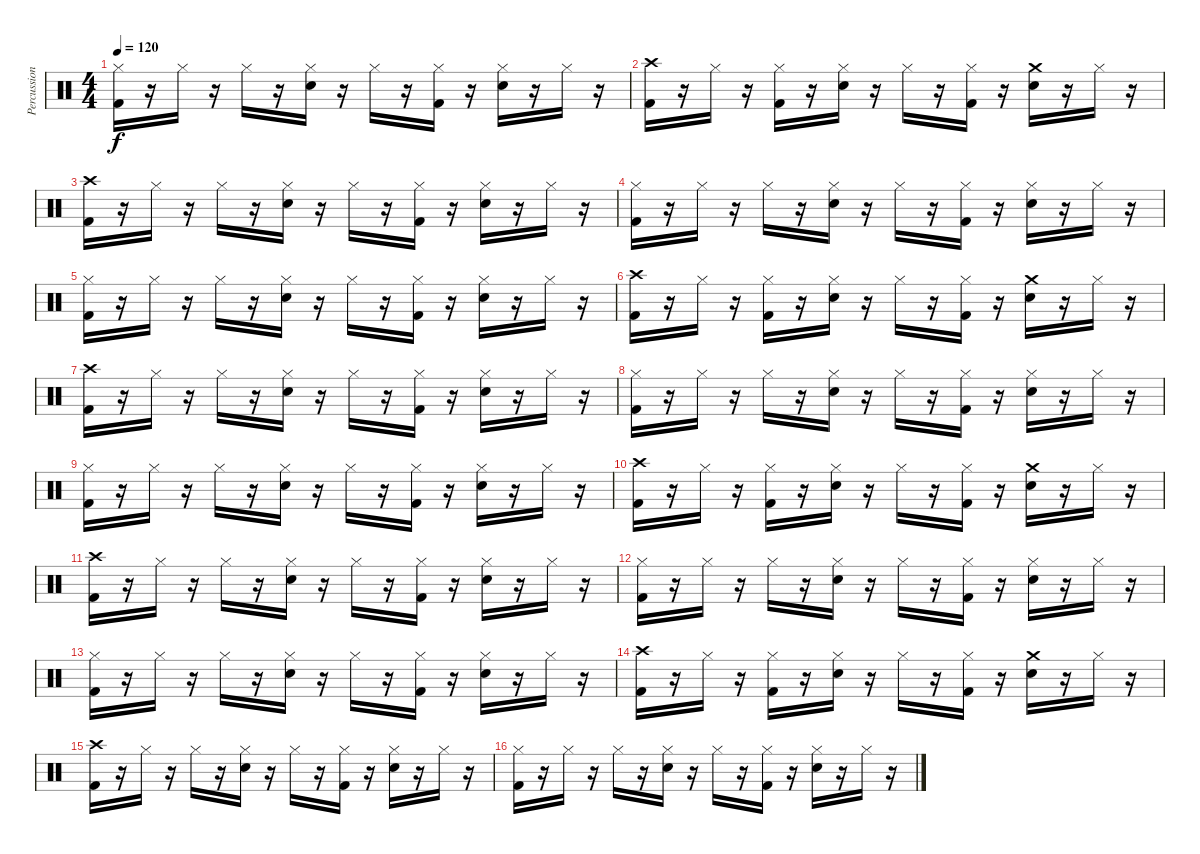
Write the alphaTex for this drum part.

\track ("Percussion" "Percussion") {instrument percussion}
\staff {score}
\articulation defaults
\ts (4 4)
\tempo 120
\clef neutral
\ks c
("Hi-Hat (closed)" "Kick (hit) 2").16{dy f} r.16 "Hi-Hat (closed)".16 r.16 "Hi-Hat (closed)".16 r.16 ("Hi-Hat (closed)" "Snare (hit) 2").16 r.16 "Hi-Hat (closed)".16 r.16 ("Hi-Hat (closed)" "Kick (hit) 2").16 r.16 ("Hi-Hat (closed)" "Snare (hit) 2").16 r.16 "Hi-Hat (closed)".16 r.16 |
("Crash high (hit)" "Kick (hit) 2").16 r.16 "Hi-Hat (closed)".16 r.16 ("Hi-Hat (closed)" "Kick (hit) 2").16 r.16 ("Hi-Hat (closed)" "Snare (hit) 2").16 r.16 "Hi-Hat (closed)".16 r.16 ("Hi-Hat (closed)" "Kick (hit) 2").16 r.16 ("Crash medium (hit)" "Snare (hit) 2").16 r.16 "Hi-Hat (closed)".16 r.16 |
("Crash high (hit)" "Kick (hit) 2").16 r.16 "Hi-Hat (closed)".16 r.16 "Hi-Hat (closed)".16 r.16 ("Hi-Hat (closed)" "Snare (hit) 2").16 r.16 "Hi-Hat (closed)".16 r.16 ("Hi-Hat (closed)" "Kick (hit) 2").16 r.16 ("Hi-Hat (closed)" "Snare (hit) 2").16 r.16 "Hi-Hat (closed)".16 r.16 |
("Hi-Hat (closed)" "Kick (hit) 2").16 r.16 "Hi-Hat (closed)".16 r.16 "Hi-Hat (closed)".16 r.16 ("Hi-Hat (closed)" "Snare (hit) 2").16 r.16 "Hi-Hat (closed)".16 r.16 ("Hi-Hat (closed)" "Kick (hit) 2").16 r.16 ("Hi-Hat (closed)" "Snare (hit) 2").16 r.16 "Hi-Hat (closed)".16 r.16 |
("Hi-Hat (closed)" "Kick (hit) 2").16 r.16 "Hi-Hat (closed)".16 r.16 "Hi-Hat (closed)".16 r.16 ("Hi-Hat (closed)" "Snare (hit) 2").16 r.16 "Hi-Hat (closed)".16 r.16 ("Hi-Hat (closed)" "Kick (hit) 2").16 r.16 ("Hi-Hat (closed)" "Snare (hit) 2").16 r.16 "Hi-Hat (closed)".16 r.16 |
("Crash high (hit)" "Kick (hit) 2").16 r.16 "Hi-Hat (closed)".16 r.16 ("Hi-Hat (closed)" "Kick (hit) 2").16 r.16 ("Hi-Hat (closed)" "Snare (hit) 2").16 r.16 "Hi-Hat (closed)".16 r.16 ("Hi-Hat (closed)" "Kick (hit) 2").16 r.16 ("Crash medium (hit)" "Snare (hit) 2").16 r.16 "Hi-Hat (closed)".16 r.16 |
("Crash high (hit)" "Kick (hit) 2").16 r.16 "Hi-Hat (closed)".16 r.16 "Hi-Hat (closed)".16 r.16 ("Hi-Hat (closed)" "Snare (hit) 2").16 r.16 "Hi-Hat (closed)".16 r.16 ("Hi-Hat (closed)" "Kick (hit) 2").16 r.16 ("Hi-Hat (closed)" "Snare (hit) 2").16 r.16 "Hi-Hat (closed)".16 r.16 |
("Hi-Hat (closed)" "Kick (hit) 2").16 r.16 "Hi-Hat (closed)".16 r.16 "Hi-Hat (closed)".16 r.16 ("Hi-Hat (closed)" "Snare (hit) 2").16 r.16 "Hi-Hat (closed)".16 r.16 ("Hi-Hat (closed)" "Kick (hit) 2").16 r.16 ("Hi-Hat (closed)" "Snare (hit) 2").16 r.16 "Hi-Hat (closed)".16 r.16 |
("Hi-Hat (closed)" "Kick (hit) 2").16 r.16 "Hi-Hat (closed)".16 r.16 "Hi-Hat (closed)".16 r.16 ("Hi-Hat (closed)" "Snare (hit) 2").16 r.16 "Hi-Hat (closed)".16 r.16 ("Hi-Hat (closed)" "Kick (hit) 2").16 r.16 ("Hi-Hat (closed)" "Snare (hit) 2").16 r.16 "Hi-Hat (closed)".16 r.16 |
("Crash high (hit)" "Kick (hit) 2").16 r.16 "Hi-Hat (closed)".16 r.16 ("Hi-Hat (closed)" "Kick (hit) 2").16 r.16 ("Hi-Hat (closed)" "Snare (hit) 2").16 r.16 "Hi-Hat (closed)".16 r.16 ("Hi-Hat (closed)" "Kick (hit) 2").16 r.16 ("Crash medium (hit)" "Snare (hit) 2").16 r.16 "Hi-Hat (closed)".16 r.16 |
("Crash high (hit)" "Kick (hit) 2").16 r.16 "Hi-Hat (closed)".16 r.16 "Hi-Hat (closed)".16 r.16 ("Hi-Hat (closed)" "Snare (hit) 2").16 r.16 "Hi-Hat (closed)".16 r.16 ("Hi-Hat (closed)" "Kick (hit) 2").16 r.16 ("Hi-Hat (closed)" "Snare (hit) 2").16 r.16 "Hi-Hat (closed)".16 r.16 |
("Hi-Hat (closed)" "Kick (hit) 2").16 r.16 "Hi-Hat (closed)".16 r.16 "Hi-Hat (closed)".16 r.16 ("Hi-Hat (closed)" "Snare (hit) 2").16 r.16 "Hi-Hat (closed)".16 r.16 ("Hi-Hat (closed)" "Kick (hit) 2").16 r.16 ("Hi-Hat (closed)" "Snare (hit) 2").16 r.16 "Hi-Hat (closed)".16 r.16 |
("Hi-Hat (closed)" "Kick (hit) 2").16 r.16 "Hi-Hat (closed)".16 r.16 "Hi-Hat (closed)".16 r.16 ("Hi-Hat (closed)" "Snare (hit) 2").16 r.16 "Hi-Hat (closed)".16 r.16 ("Hi-Hat (closed)" "Kick (hit) 2").16 r.16 ("Hi-Hat (closed)" "Snare (hit) 2").16 r.16 "Hi-Hat (closed)".16 r.16 |
("Crash high (hit)" "Kick (hit) 2").16 r.16 "Hi-Hat (closed)".16 r.16 ("Hi-Hat (closed)" "Kick (hit) 2").16 r.16 ("Hi-Hat (closed)" "Snare (hit) 2").16 r.16 "Hi-Hat (closed)".16 r.16 ("Hi-Hat (closed)" "Kick (hit) 2").16 r.16 ("Crash medium (hit)" "Snare (hit) 2").16 r.16 "Hi-Hat (closed)".16 r.16 |
("Crash high (hit)" "Kick (hit) 2").16 r.16 "Hi-Hat (closed)".16 r.16 "Hi-Hat (closed)".16 r.16 ("Hi-Hat (closed)" "Snare (hit) 2").16 r.16 "Hi-Hat (closed)".16 r.16 ("Hi-Hat (closed)" "Kick (hit) 2").16 r.16 ("Hi-Hat (closed)" "Snare (hit) 2").16 r.16 "Hi-Hat (closed)".16 r.16 |
("Hi-Hat (closed)" "Kick (hit) 2").16 r.16 "Hi-Hat (closed)".16 r.16 "Hi-Hat (closed)".16 r.16 ("Hi-Hat (closed)" "Snare (hit) 2").16 r.16 "Hi-Hat (closed)".16 r.16 ("Hi-Hat (closed)" "Kick (hit) 2").16 r.16 ("Hi-Hat (closed)" "Snare (hit) 2").16 r.16 "Hi-Hat (closed)".16 r.16
